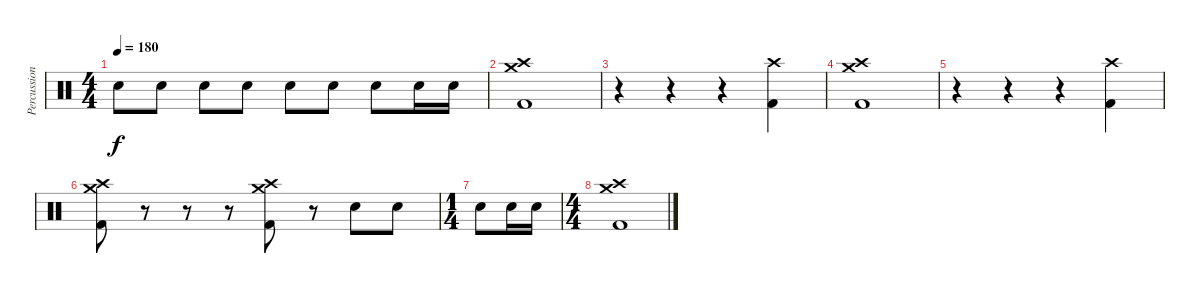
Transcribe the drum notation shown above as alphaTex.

\track ("Percussions" "Percussion") {instrument percussion}
\staff {score}
\articulation defaults
\ts (4 4)
\tempo 180
\clef neutral
\ks c "Electric Snare (hit)".8{dy f} "Electric Snare (hit)".8 "Electric Snare (hit)".8 "Electric Snare (hit)".8 "Electric Snare (hit)".8 "Electric Snare (hit)".8 "Electric Snare (hit)".8 "Electric Snare (hit)".16 "Electric Snare (hit)".16
|
("Crash high (hit)" "Crash medium (hit)" "Kick (hit) 2").1 |
r.4 r.4 r.4 ("Crash high (hit)" "Kick (hit) 2").4 |
("Crash high (hit)" "Crash medium (hit)" "Kick (hit) 2").1 |
r.4 r.4 r.4 ("Crash high (hit)" "Kick (hit) 2").4 |
("Crash high (hit)" "Crash medium (hit)" "Kick (hit) 2").8 r.8 r.8 r.8 ("Crash high (hit)" "Crash medium (hit)" "Kick (hit) 2").8 r.8 "Electric Snare (hit)".8 "Electric Snare (hit)".8 |
\ts (1 4)
"Electric Snare (hit)".8 "Electric Snare (hit)".16 "Electric Snare (hit)".16 |
\ts (4 4)
("Crash high (hit)" "Crash medium (hit)" "Kick (hit) 2").1
